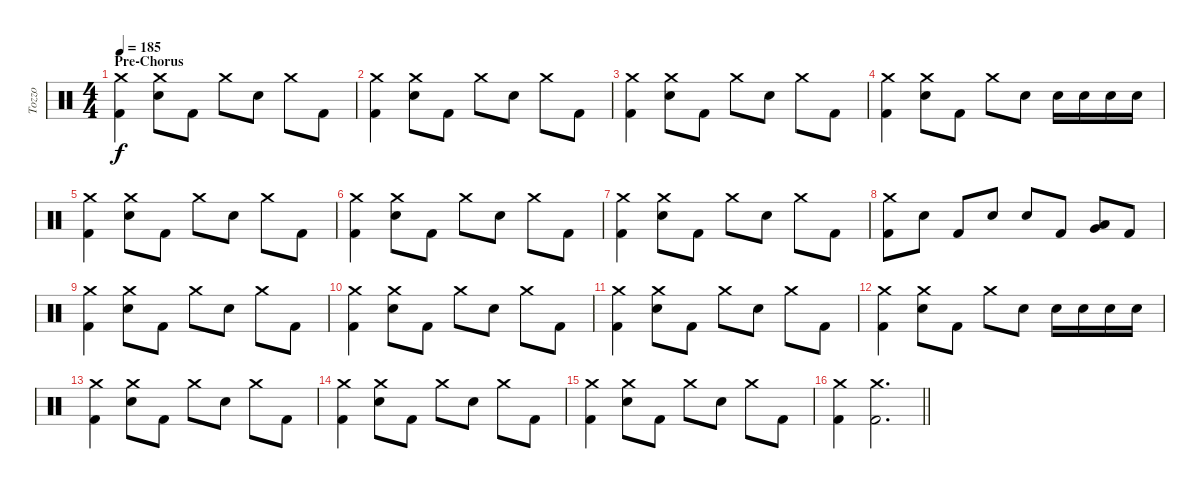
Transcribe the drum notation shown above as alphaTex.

\track ("Tozzo" "Tozzo") {instrument percussion}
\staff {score}
\articulation defaults
\ts (4 4)
\section ("" "Pre-Chorus")
\tempo 185
\clef neutral
\ks c
("Crash medium (hit)" "Kick (hit) 2").4{dy f} ("Crash medium (hit)" "Electric Snare (hit)").8 "Kick (hit) 2".8 "Crash medium (hit)".8 "Electric Snare (hit)".8 "Crash medium (hit)".8 "Kick (hit) 2".8 |
("Crash medium (hit)" "Kick (hit) 2").4 ("Crash medium (hit)" "Electric Snare (hit)").8 "Kick (hit) 2".8 "Crash medium (hit)".8 "Electric Snare (hit)".8 "Crash medium (hit)".8 "Kick (hit) 2".8 |
("Crash medium (hit)" "Kick (hit) 2").4 ("Crash medium (hit)" "Electric Snare (hit)").8 "Kick (hit) 2".8 "Crash medium (hit)".8 "Electric Snare (hit)".8 "Crash medium (hit)".8 "Kick (hit) 2".8 |
("Crash medium (hit)" "Kick (hit) 2").4 ("Crash medium (hit)" "Electric Snare (hit)").8 "Kick (hit) 2".8 "Crash medium (hit)".8 "Electric Snare (hit)".8 "Electric Snare (hit)".16 "Electric Snare (hit)".16 "Electric Snare (hit)".16 "Electric Snare (hit)".16 |
("Crash medium (hit)" "Kick (hit) 2").4 ("Crash medium (hit)" "Electric Snare (hit)").8 "Kick (hit) 2".8 "Crash medium (hit)".8 "Electric Snare (hit)".8 "Crash medium (hit)".8 "Kick (hit) 2".8 |
("Crash medium (hit)" "Kick (hit) 2").4 ("Crash medium (hit)" "Electric Snare (hit)").8 "Kick (hit) 2".8 "Crash medium (hit)".8 "Electric Snare (hit)".8 "Crash medium (hit)".8 "Kick (hit) 2".8 |
("Crash medium (hit)" "Kick (hit) 2").4 ("Crash medium (hit)" "Electric Snare (hit)").8 "Kick (hit) 2".8 "Crash medium (hit)".8 "Electric Snare (hit)".8 "Crash medium (hit)".8 "Kick (hit) 2".8 |
("Crash medium (hit)" "Kick (hit) 2").8 "Electric Snare (hit)".8 "Kick (hit) 2".8 "Electric Snare (hit)".8 "Electric Snare (hit)".8 "Kick (hit) 2".8 ("Low Tom (hit)" "Very Low Tom (hit)").8 "Kick (hit) 2".8 |
("Crash medium (hit)" "Kick (hit) 2").4 ("Crash medium (hit)" "Electric Snare (hit)").8 "Kick (hit) 2".8 "Crash medium (hit)".8 "Electric Snare (hit)".8 "Crash medium (hit)".8 "Kick (hit) 2".8 |
("Crash medium (hit)" "Kick (hit) 2").4 ("Crash medium (hit)" "Electric Snare (hit)").8 "Kick (hit) 2".8 "Crash medium (hit)".8 "Electric Snare (hit)".8 "Crash medium (hit)".8 "Kick (hit) 2".8 |
("Crash medium (hit)" "Kick (hit) 2").4 ("Crash medium (hit)" "Electric Snare (hit)").8 "Kick (hit) 2".8 "Crash medium (hit)".8 "Electric Snare (hit)".8 "Crash medium (hit)".8 "Kick (hit) 2".8 |
("Crash medium (hit)" "Kick (hit) 2").4 ("Crash medium (hit)" "Electric Snare (hit)").8 "Kick (hit) 2".8 "Crash medium (hit)".8 "Electric Snare (hit)".8 "Electric Snare (hit)".16 "Electric Snare (hit)".16 "Electric Snare (hit)".16 "Electric Snare (hit)".16 |
("Crash medium (hit)" "Kick (hit) 2").4 ("Crash medium (hit)" "Electric Snare (hit)").8 "Kick (hit) 2".8 "Crash medium (hit)".8 "Electric Snare (hit)".8 "Crash medium (hit)".8 "Kick (hit) 2".8 |
("Crash medium (hit)" "Kick (hit) 2").4 ("Crash medium (hit)" "Electric Snare (hit)").8 "Kick (hit) 2".8 "Crash medium (hit)".8 "Electric Snare (hit)".8 "Crash medium (hit)".8 "Kick (hit) 2".8 |
("Crash medium (hit)" "Kick (hit) 2").4 ("Crash medium (hit)" "Electric Snare (hit)").8 "Kick (hit) 2".8 "Crash medium (hit)".8 "Electric Snare (hit)".8 "Crash medium (hit)".8 "Kick (hit) 2".8 |
\barLineRight lightlight
("Crash medium (hit)" "Kick (hit) 2").4 ("Crash medium (hit)" "Kick (hit) 2").2{d}
